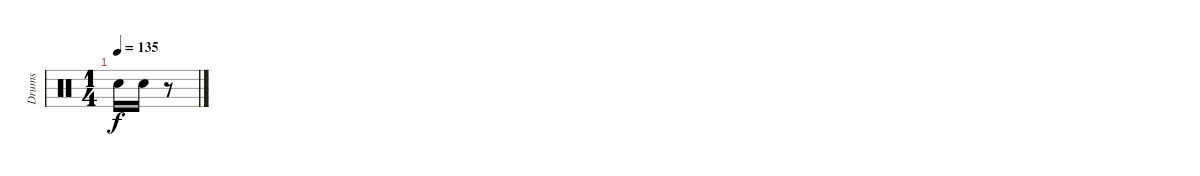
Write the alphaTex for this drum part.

\track ("Drums" "Drums") {instrument percussion}
\staff {score}
\articulation defaults
\ts (1 4)
\tempo 135
\clef neutral
\ks c "Electric Snare (hit)".16{dy f} "Electric Snare (hit)".16
r.8
